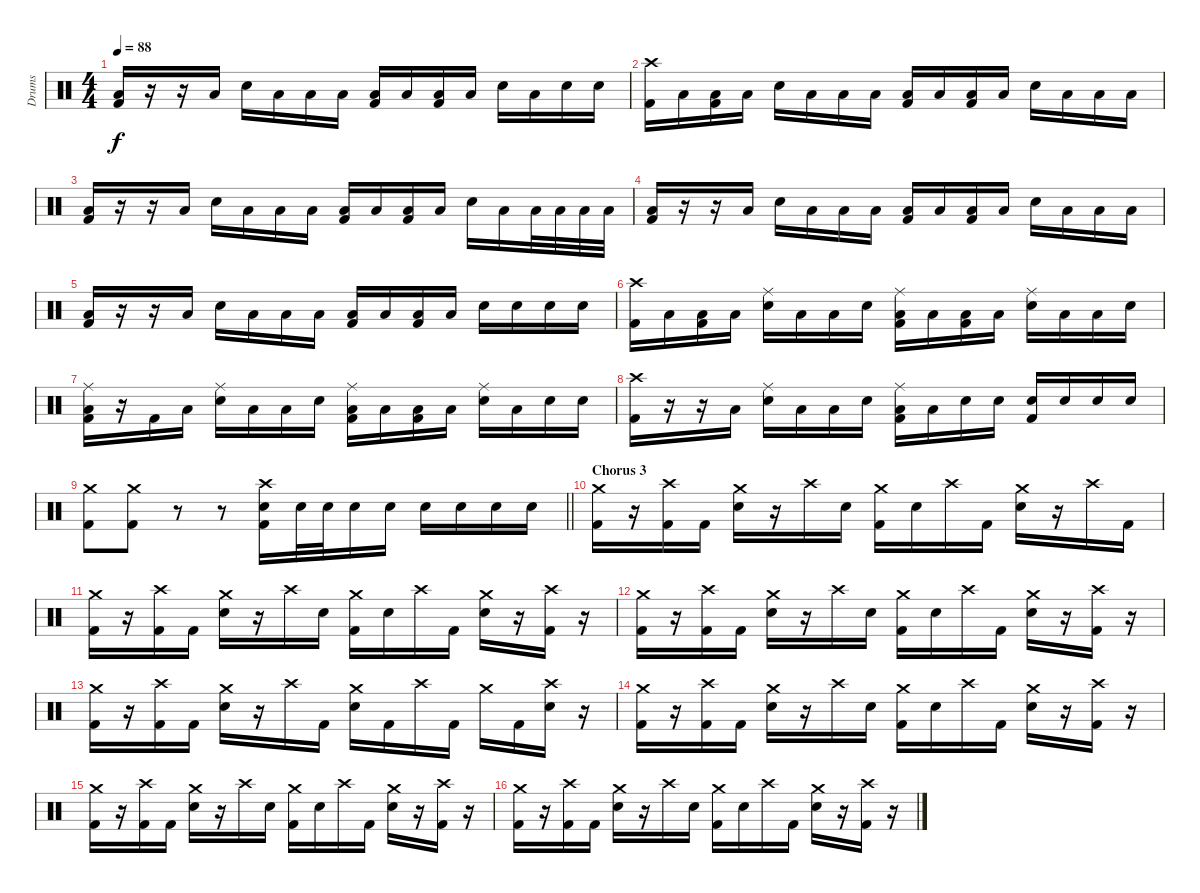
\track ("Drums" "Drums") {instrument percussion}
\staff {score}
\articulation defaults
\ts (4 4)
\tempo 88
\clef neutral
\ks c
("Kick (hit) 2" "Low Floor Tom (hit)").16{dy f} r.16 r.16 "Low Floor Tom (hit)".16 "Snare (hit) 2".16 "Low Floor Tom (hit)".16 "Low Tom (hit)".16 "Low Tom (hit)".16 ("Kick (hit) 2" "Low Tom (hit)").16 "Low Tom (hit)".16 ("Kick (hit) 2" "Low Tom (hit)").16 "Low Floor Tom (hit)".16 "Snare (hit) 2".16 "Low Floor Tom (hit)".16 "Snare (hit) 2".16 "Snare (hit) 2".16 |
("Kick (hit) 2" "Crash high (hit)").16 "Low Tom (hit)".16 ("Kick (hit) 2" "Low Tom (hit)").16 "Low Tom (hit)".16 "Snare (hit) 2".16 "Low Floor Tom (hit)".16 "Low Tom (hit)".16 "Low Tom (hit)".16 ("Kick (hit) 2" "Low Tom (hit)").16 "Low Tom (hit)".16 ("Kick (hit) 2" "Low Tom (hit)").16 "Low Tom (hit)".16 "Snare (hit) 2".16 "Low Tom (hit)".16 "Low Floor Tom (hit)".16 "Low Tom (hit)".16 |
("Kick (hit) 2" "Low Floor Tom (hit)").16 r.16 r.16 "Low Floor Tom (hit)".16 "Snare (hit) 2".16 "Low Floor Tom (hit)".16 "Low Tom (hit)".16 "Low Tom (hit)".16 ("Kick (hit) 2" "Low Tom (hit)").16 "Low Tom (hit)".16 ("Kick (hit) 2" "Low Tom (hit)").16 "Low Floor Tom (hit)".16 "Snare (hit) 2".16 "Low Floor Tom (hit)".16 "Low Floor Tom (hit)".32 "Low Floor Tom (hit)".32 "Low Floor Tom (hit)".32 "Low Floor Tom (hit)".32 |
("Kick (hit) 2" "Low Floor Tom (hit)").16 r.16 r.16 "Low Floor Tom (hit)".16 "Snare (hit) 2".16 "Low Floor Tom (hit)".16 "Low Tom (hit)".16 "Low Tom (hit)".16 ("Kick (hit) 2" "Low Tom (hit)").16 "Low Tom (hit)".16 ("Kick (hit) 2" "Low Tom (hit)").16 "Low Floor Tom (hit)".16 "Snare (hit) 2".16 "Low Floor Tom (hit)".16 "Low Tom (hit)".16 "Low Tom (hit)".16 |
("Kick (hit) 2" "Low Floor Tom (hit)").16 r.16 r.16 "Low Floor Tom (hit)".16 "Snare (hit) 2".16 "Low Floor Tom (hit)".16 "Low Tom (hit)".16 "Low Tom (hit)".16 ("Kick (hit) 2" "Low Tom (hit)").16 "Low Tom (hit)".16 ("Kick (hit) 2" "Low Tom (hit)").16 "Low Floor Tom (hit)".16 "Snare (hit) 2".16 "Snare (hit) 2".16 "Snare (hit) 2".16 "Snare (hit) 2".16 |
("Kick (hit) 2" "Crash high (hit)").16 "Low Tom (hit)".16 ("Kick (hit) 2" "Low Tom (hit)").16 "Low Tom (hit)".16 ("Snare (hit) 2" "Ride (middle)").16 "Low Floor Tom (hit)".16 "Low Tom (hit)".16 "Snare (hit) 2".16 ("Kick (hit) 2" "Low Tom (hit)" "Ride (middle)").16 "Low Tom (hit)".16 ("Kick (hit) 2" "Low Tom (hit)").16 "Low Tom (hit)".16 ("Snare (hit) 2" "Ride (middle)").16 "Low Tom (hit)".16 "Low Floor Tom (hit)".16 "Snare (hit) 2".16 |
("Kick (hit) 2" "Low Floor Tom (hit)" "Ride (middle)").16 r.16 "Kick (hit) 2".16 "Low Floor Tom (hit)".16 ("Snare (hit) 2" "Ride (middle)").16 "Low Floor Tom (hit)".16 "Low Tom (hit)".16 "Snare (hit) 2".16 ("Kick (hit) 2" "Low Tom (hit)" "Ride (middle)").16 "Low Tom (hit)".16 ("Kick (hit) 2" "Low Tom (hit)").16 "Low Floor Tom (hit)".16 ("Snare (hit) 2" "Ride (middle)").16 "Low Floor Tom (hit)".16 "Snare (hit) 2".16 "Snare (hit) 2".16 |
("Kick (hit) 2" "Crash high (hit)").16 r.16 r.16 "Low Floor Tom (hit)".16 ("Snare (hit) 2" "Ride (middle)").16 "Low Floor Tom (hit)".16 "Low Tom (hit)".16 "Snare (hit) 2".16 ("Kick (hit) 2" "Low Tom (hit)" "Ride (middle)").16 "Low Tom (hit)".16 "Snare (hit) 2".16 "Snare (hit) 2".16 ("Snare (hit) 2" "Kick (hit) 2").16 "Snare (hit) 2".16 "Snare (hit) 2".16 "Snare (hit) 2".16 |
\barLineRight lightlight
("Crash medium (hit)" "Kick (hit) 2").8 ("Crash medium (hit)" "Kick (hit) 2").8 r.8 r.8 ("Kick (hit) 2" "Snare (hit) 2" "Crash high (hit)").16 "Snare (hit) 2".32 "Snare (hit) 2".32 "Snare (hit) 2".16 "Snare (hit) 2".16 "Snare (hit) 2".16 "Snare (hit) 2".16 "Snare (hit) 2".16 "Snare (hit) 2".16 |
\section ("" "Chorus 3")
("Kick (hit) 2" "Crash medium (hit)").16 r.16 ("Crash high (hit)" "Kick (hit) 2").16 "Kick (hit) 2".16 ("Crash medium (hit)" "Snare (hit) 2").16 r.16 "Crash high (hit)".16 "Snare (hit) 2".16 ("Crash medium (hit)" "Kick (hit) 2").16 "Snare (hit) 2".16 "Crash high (hit)".16 "Kick (hit) 2".16 ("Crash medium (hit)" "Snare (hit) 2").16 r.16 "Crash high (hit)".16 "Kick (hit) 2".16 |
("Kick (hit) 2" "Crash medium (hit)").16 r.16 ("Crash high (hit)" "Kick (hit) 2").16 "Kick (hit) 2".16 ("Crash medium (hit)" "Snare (hit) 2").16 r.16 "Crash high (hit)".16 "Snare (hit) 2".16 ("Crash medium (hit)" "Kick (hit) 2").16 "Snare (hit) 2".16 "Crash high (hit)".16 "Kick (hit) 2".16 ("Crash medium (hit)" "Snare (hit) 2").16 r.16 ("Crash high (hit)" "Kick (hit) 2").16 r.16 |
("Kick (hit) 2" "Crash medium (hit)").16 r.16 ("Crash high (hit)" "Kick (hit) 2").16 "Kick (hit) 2".16 ("Crash medium (hit)" "Snare (hit) 2").16 r.16 "Crash high (hit)".16 "Snare (hit) 2".16 ("Crash medium (hit)" "Kick (hit) 2").16 "Snare (hit) 2".16 "Crash high (hit)".16 "Kick (hit) 2".16 ("Crash medium (hit)" "Snare (hit) 2").16 r.16 ("Crash high (hit)" "Kick (hit) 2").16 r.16 |
("Kick (hit) 2" "Crash medium (hit)").16 r.16 ("Crash high (hit)" "Kick (hit) 2").16 "Kick (hit) 2".16 ("Crash medium (hit)" "Snare (hit) 2").16 r.16 "Crash high (hit)".16 "Kick (hit) 2".16 ("Crash medium (hit)" "Snare (hit) 2").16 "Kick (hit) 2".16 "Crash high (hit)".16 "Kick (hit) 2".16 "Crash medium (hit)".16 "Kick (hit) 2".16 ("Crash high (hit)" "Snare (hit) 2").16 r.16 |
("Kick (hit) 2" "Crash medium (hit)").16 r.16 ("Crash high (hit)" "Kick (hit) 2").16 "Kick (hit) 2".16 ("Crash medium (hit)" "Snare (hit) 2").16 r.16 "Crash high (hit)".16 "Snare (hit) 2".16 ("Crash medium (hit)" "Kick (hit) 2").16 "Snare (hit) 2".16 "Crash high (hit)".16 "Kick (hit) 2".16 ("Crash medium (hit)" "Snare (hit) 2").16 r.16 ("Crash high (hit)" "Kick (hit) 2").16 r.16 |
("Kick (hit) 2" "Crash medium (hit)").16 r.16 ("Crash high (hit)" "Kick (hit) 2").16 "Kick (hit) 2".16 ("Crash medium (hit)" "Snare (hit) 2").16 r.16 "Crash high (hit)".16 "Snare (hit) 2".16 ("Crash medium (hit)" "Kick (hit) 2").16 "Snare (hit) 2".16 "Crash high (hit)".16 "Kick (hit) 2".16 ("Crash medium (hit)" "Snare (hit) 2").16 r.16 ("Crash high (hit)" "Kick (hit) 2").16 r.16 |
("Kick (hit) 2" "Crash medium (hit)").16 r.16 ("Crash high (hit)" "Kick (hit) 2").16 "Kick (hit) 2".16 ("Crash medium (hit)" "Snare (hit) 2").16 r.16 "Crash high (hit)".16 "Snare (hit) 2".16 ("Crash medium (hit)" "Kick (hit) 2").16 "Snare (hit) 2".16 "Crash high (hit)".16 "Kick (hit) 2".16 ("Crash medium (hit)" "Snare (hit) 2").16 r.16 ("Crash high (hit)" "Kick (hit) 2").16 r.16
